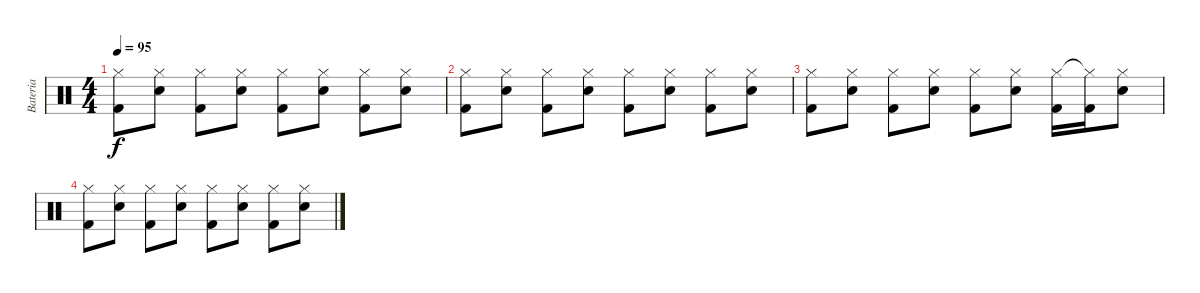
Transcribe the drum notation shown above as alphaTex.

\track ("Bateria" "Bateria") {instrument percussion}
\staff {score}
\articulation defaults
\ts (4 4)
\tempo 95
\clef neutral
\ks c
("Hi-Hat (closed)" "Kick (hit) 2").8{dy f} ("Hi-Hat (closed)" "Electric Snare (hit)").8 ("Hi-Hat (closed)" "Kick (hit) 2").8 ("Hi-Hat (closed)" "Electric Snare (hit)").8 ("Hi-Hat (closed)" "Kick (hit) 2").8 ("Hi-Hat (closed)" "Electric Snare (hit)").8 ("Hi-Hat (closed)" "Kick (hit) 2").8 ("Hi-Hat (closed)" "Electric Snare (hit)").8 |
("Hi-Hat (closed)" "Kick (hit) 2").8 ("Hi-Hat (closed)" "Electric Snare (hit)").8 ("Hi-Hat (closed)" "Kick (hit) 2").8 ("Hi-Hat (closed)" "Electric Snare (hit)").8 ("Hi-Hat (closed)" "Kick (hit) 2").8 ("Hi-Hat (closed)" "Electric Snare (hit)").8 ("Hi-Hat (closed)" "Kick (hit) 2").8 ("Hi-Hat (closed)" "Electric Snare (hit)").8 |
("Hi-Hat (closed)" "Kick (hit) 2").8 ("Hi-Hat (closed)" "Electric Snare (hit)").8 ("Hi-Hat (closed)" "Kick (hit) 2").8 ("Hi-Hat (closed)" "Electric Snare (hit)").8 ("Hi-Hat (closed)" "Kick (hit) 2").8 ("Hi-Hat (closed)" "Electric Snare (hit)").8 ("Hi-Hat (closed)" "Kick (hit) 2").16 ("Hi-Hat (closed)"{t} "Kick (hit) 2").16 ("Hi-Hat (closed)" "Electric Snare (hit)").8 |
("Hi-Hat (closed)" "Kick (hit) 2").8 ("Hi-Hat (closed)" "Electric Snare (hit)").8 ("Hi-Hat (closed)" "Kick (hit) 2").8 ("Hi-Hat (closed)" "Electric Snare (hit)").8 ("Hi-Hat (closed)" "Kick (hit) 2").8 ("Hi-Hat (closed)" "Electric Snare (hit)").8 ("Hi-Hat (closed)" "Kick (hit) 2").8 ("Hi-Hat (closed)" "Electric Snare (hit)").8
